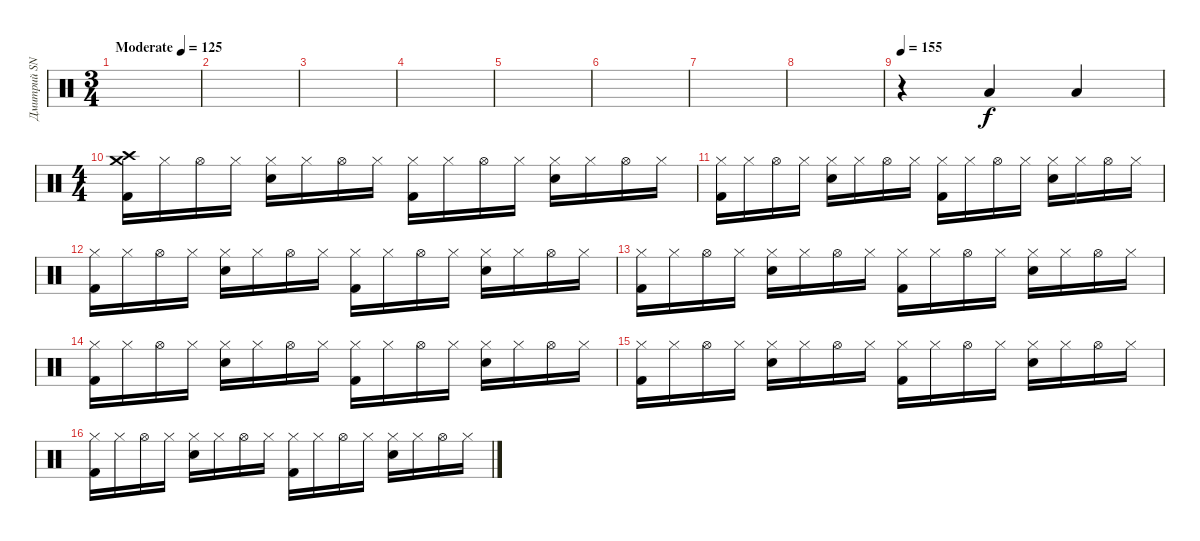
\track ("Дмитрий SNAKE Хакимов" "Дмитрий SN") {instrument percussion}
\staff {score}
\articulation defaults
\ts (3 4)
\tempo (125 "Moderate")
\clef neutral
\ks c
|
|
|
|
|
|
|
|
\tempo 155
r.4 "Low Tom (hit)".4 "Low Tom (hit)".4 |
\ts (4 4)
("Crash high (hit)" "Crash medium (hit)" "Kick (hit) 2").16 "Hi-Hat (closed)".16 "Hi-Hat (open)".16 "Hi-Hat (closed)".16 ("Hi-Hat (closed)" "Snare (hit) 2").16 "Hi-Hat (closed)".16 "Hi-Hat (open)".16 "Hi-Hat (closed)".16 ("Hi-Hat (closed)" "Kick (hit) 2").16 "Hi-Hat (closed)".16 "Hi-Hat (open)".16 "Hi-Hat (closed)".16 ("Hi-Hat (closed)" "Snare (hit) 2").16 "Hi-Hat (closed)".16 "Hi-Hat (open)".16 "Hi-Hat (closed)".16 |
("Hi-Hat (closed)" "Kick (hit) 2").16 "Hi-Hat (closed)".16 "Hi-Hat (open)".16 "Hi-Hat (closed)".16 ("Hi-Hat (closed)" "Snare (hit) 2").16 "Hi-Hat (closed)".16 "Hi-Hat (open)".16 "Hi-Hat (closed)".16 ("Hi-Hat (closed)" "Kick (hit) 2").16 "Hi-Hat (closed)".16 "Hi-Hat (open)".16 "Hi-Hat (closed)".16 ("Hi-Hat (closed)" "Snare (hit) 2").16 "Hi-Hat (closed)".16 "Hi-Hat (open)".16 "Hi-Hat (closed)".16 |
("Hi-Hat (closed)" "Kick (hit) 2").16 "Hi-Hat (closed)".16 "Hi-Hat (open)".16 "Hi-Hat (closed)".16 ("Hi-Hat (closed)" "Snare (hit) 2").16 "Hi-Hat (closed)".16 "Hi-Hat (open)".16 "Hi-Hat (closed)".16 ("Hi-Hat (closed)" "Kick (hit) 2").16 "Hi-Hat (closed)".16 "Hi-Hat (open)".16 "Hi-Hat (closed)".16 ("Hi-Hat (closed)" "Snare (hit) 2").16 "Hi-Hat (closed)".16 "Hi-Hat (open)".16 "Hi-Hat (closed)".16 |
("Hi-Hat (closed)" "Kick (hit) 2").16 "Hi-Hat (closed)".16 "Hi-Hat (open)".16 "Hi-Hat (closed)".16 ("Hi-Hat (closed)" "Snare (hit) 2").16 "Hi-Hat (closed)".16 "Hi-Hat (open)".16 "Hi-Hat (closed)".16 ("Hi-Hat (closed)" "Kick (hit) 2").16 "Hi-Hat (closed)".16 "Hi-Hat (open)".16 "Hi-Hat (closed)".16 ("Hi-Hat (closed)" "Snare (hit) 2").16 "Hi-Hat (closed)".16 "Hi-Hat (open)".16 "Hi-Hat (closed)".16 |
("Hi-Hat (closed)" "Kick (hit) 2").16 "Hi-Hat (closed)".16 "Hi-Hat (open)".16 "Hi-Hat (closed)".16 ("Hi-Hat (closed)" "Snare (hit) 2").16 "Hi-Hat (closed)".16 "Hi-Hat (open)".16 "Hi-Hat (closed)".16 ("Hi-Hat (closed)" "Kick (hit) 2").16 "Hi-Hat (closed)".16 "Hi-Hat (open)".16 "Hi-Hat (closed)".16 ("Hi-Hat (closed)" "Snare (hit) 2").16 "Hi-Hat (closed)".16 "Hi-Hat (open)".16 "Hi-Hat (closed)".16 |
("Hi-Hat (closed)" "Kick (hit) 2").16 "Hi-Hat (closed)".16 "Hi-Hat (open)".16 "Hi-Hat (closed)".16 ("Hi-Hat (closed)" "Snare (hit) 2").16 "Hi-Hat (closed)".16 "Hi-Hat (open)".16 "Hi-Hat (closed)".16 ("Hi-Hat (closed)" "Kick (hit) 2").16 "Hi-Hat (closed)".16 "Hi-Hat (open)".16 "Hi-Hat (closed)".16 ("Hi-Hat (closed)" "Snare (hit) 2").16 "Hi-Hat (closed)".16 "Hi-Hat (open)".16 "Hi-Hat (closed)".16 |
("Hi-Hat (closed)" "Kick (hit) 2").16 "Hi-Hat (closed)".16 "Hi-Hat (open)".16 "Hi-Hat (closed)".16 ("Hi-Hat (closed)" "Snare (hit) 2").16 "Hi-Hat (closed)".16 "Hi-Hat (open)".16 "Hi-Hat (closed)".16 ("Hi-Hat (closed)" "Kick (hit) 2").16 "Hi-Hat (closed)".16 "Hi-Hat (open)".16 "Hi-Hat (closed)".16 ("Hi-Hat (closed)" "Snare (hit) 2").16 "Hi-Hat (closed)".16 "Hi-Hat (open)".16 "Hi-Hat (closed)".16
